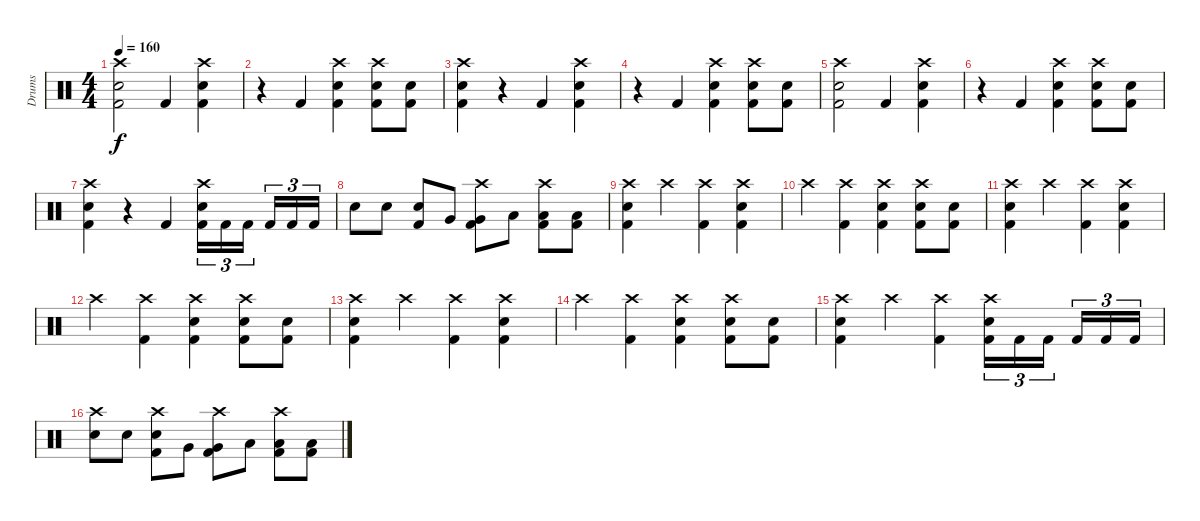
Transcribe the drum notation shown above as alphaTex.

\track ("Drums" "Drums") {instrument percussion}
\staff {score}
\articulation defaults
\ts (4 4)
\tempo 160
\clef neutral
\ks c
("Crash high (hit)" "Electric Snare (hit)" "Kick (hit) 2").2{dy f} "Kick (hit) 2".4 ("Crash high (hit)" "Electric Snare (hit)" "Kick (hit) 2").4 |
r.4 "Kick (hit) 2".4 ("Crash high (hit)" "Electric Snare (hit)" "Kick (hit) 2").4 ("Crash high (hit)" "Electric Snare (hit)" "Kick (hit) 2").8 ("Electric Snare (hit)" "Kick (hit) 2").8 |
("Crash high (hit)" "Electric Snare (hit)" "Kick (hit) 2").4 r.4 "Kick (hit) 2".4 ("Crash high (hit)" "Electric Snare (hit)" "Kick (hit) 2").4 |
r.4 "Kick (hit) 2".4 ("Crash high (hit)" "Electric Snare (hit)" "Kick (hit) 2").4 ("Crash high (hit)" "Electric Snare (hit)" "Kick (hit) 2").8 ("Electric Snare (hit)" "Kick (hit) 2").8 |
("Crash high (hit)" "Electric Snare (hit)" "Kick (hit) 2").2 "Kick (hit) 2".4 ("Crash high (hit)" "Electric Snare (hit)" "Kick (hit) 2").4 |
r.4 "Kick (hit) 2".4 ("Crash high (hit)" "Electric Snare (hit)" "Kick (hit) 2").4 ("Crash high (hit)" "Electric Snare (hit)" "Kick (hit) 2").8 ("Electric Snare (hit)" "Kick (hit) 2").8 |
("Crash high (hit)" "Electric Snare (hit)" "Kick (hit) 2").4 r.4 "Kick (hit) 2".4 ("Crash high (hit)" "Electric Snare (hit)" "Kick (hit) 2").16{tu (3 2)} "Kick (hit) 2".16{tu (3 2)} "Kick (hit) 2".16{tu (3 2)} "Kick (hit) 2".16{tu (3 2)} "Kick (hit) 2".16{tu (3 2)} "Kick (hit) 2".16{tu (3 2)} |
"Electric Snare (hit)".8 "Electric Snare (hit)".8 ("Electric Snare (hit)" "Kick (hit) 2").8 "Very Low Tom (hit)".8 ("Crash high (hit)" "Very Low Tom (hit)" "Kick (hit) 2").8 "Low Floor Tom (hit)".8 ("Crash high (hit)" "Low Floor Tom (hit)" "Kick (hit) 2").8 ("Low Floor Tom (hit)" "Kick (hit) 2").8 |
("Crash high (hit)" "Electric Snare (hit)" "Kick (hit) 2").4 "Crash high (hit)".4 ("Crash high (hit)" "Kick (hit) 2").4 ("Crash high (hit)" "Electric Snare (hit)" "Kick (hit) 2").4 |
"Crash high (hit)".4 ("Crash high (hit)" "Kick (hit) 2").4 ("Crash high (hit)" "Electric Snare (hit)" "Kick (hit) 2").4 ("Crash high (hit)" "Electric Snare (hit)" "Kick (hit) 2").8 ("Electric Snare (hit)" "Kick (hit) 2").8 |
("Crash high (hit)" "Electric Snare (hit)" "Kick (hit) 2").4 "Crash high (hit)".4 ("Crash high (hit)" "Kick (hit) 2").4 ("Crash high (hit)" "Electric Snare (hit)" "Kick (hit) 2").4 |
"Crash high (hit)".4 ("Crash high (hit)" "Kick (hit) 2").4 ("Crash high (hit)" "Electric Snare (hit)" "Kick (hit) 2").4 ("Crash high (hit)" "Electric Snare (hit)" "Kick (hit) 2").8 ("Electric Snare (hit)" "Kick (hit) 2").8 |
("Crash high (hit)" "Electric Snare (hit)" "Kick (hit) 2").4 "Crash high (hit)".4 ("Crash high (hit)" "Kick (hit) 2").4 ("Crash high (hit)" "Electric Snare (hit)" "Kick (hit) 2").4 |
"Crash high (hit)".4 ("Crash high (hit)" "Kick (hit) 2").4 ("Crash high (hit)" "Electric Snare (hit)" "Kick (hit) 2").4 ("Crash high (hit)" "Electric Snare (hit)" "Kick (hit) 2").8 ("Electric Snare (hit)" "Kick (hit) 2").8 |
("Crash high (hit)" "Electric Snare (hit)" "Kick (hit) 2").4 "Crash high (hit)".4 ("Crash high (hit)" "Kick (hit) 2").4 ("Crash high (hit)" "Electric Snare (hit)" "Kick (hit) 2").16{tu (3 2)} "Kick (hit) 2".16{tu (3 2)} "Kick (hit) 2".16{tu (3 2)} "Kick (hit) 2".16{tu (3 2)} "Kick (hit) 2".16{tu (3 2)} "Kick (hit) 2".16{tu (3 2)} |
("Crash high (hit)" "Electric Snare (hit)").8 "Electric Snare (hit)".8 ("Crash high (hit)" "Electric Snare (hit)" "Kick (hit) 2").8 "Very Low Tom (hit)".8 ("Crash high (hit)" "Very Low Tom (hit)" "Kick (hit) 2").8 "Low Floor Tom (hit)".8 ("Crash high (hit)" "Low Floor Tom (hit)" "Kick (hit) 2").8 ("Low Floor Tom (hit)" "Kick (hit) 2").8
